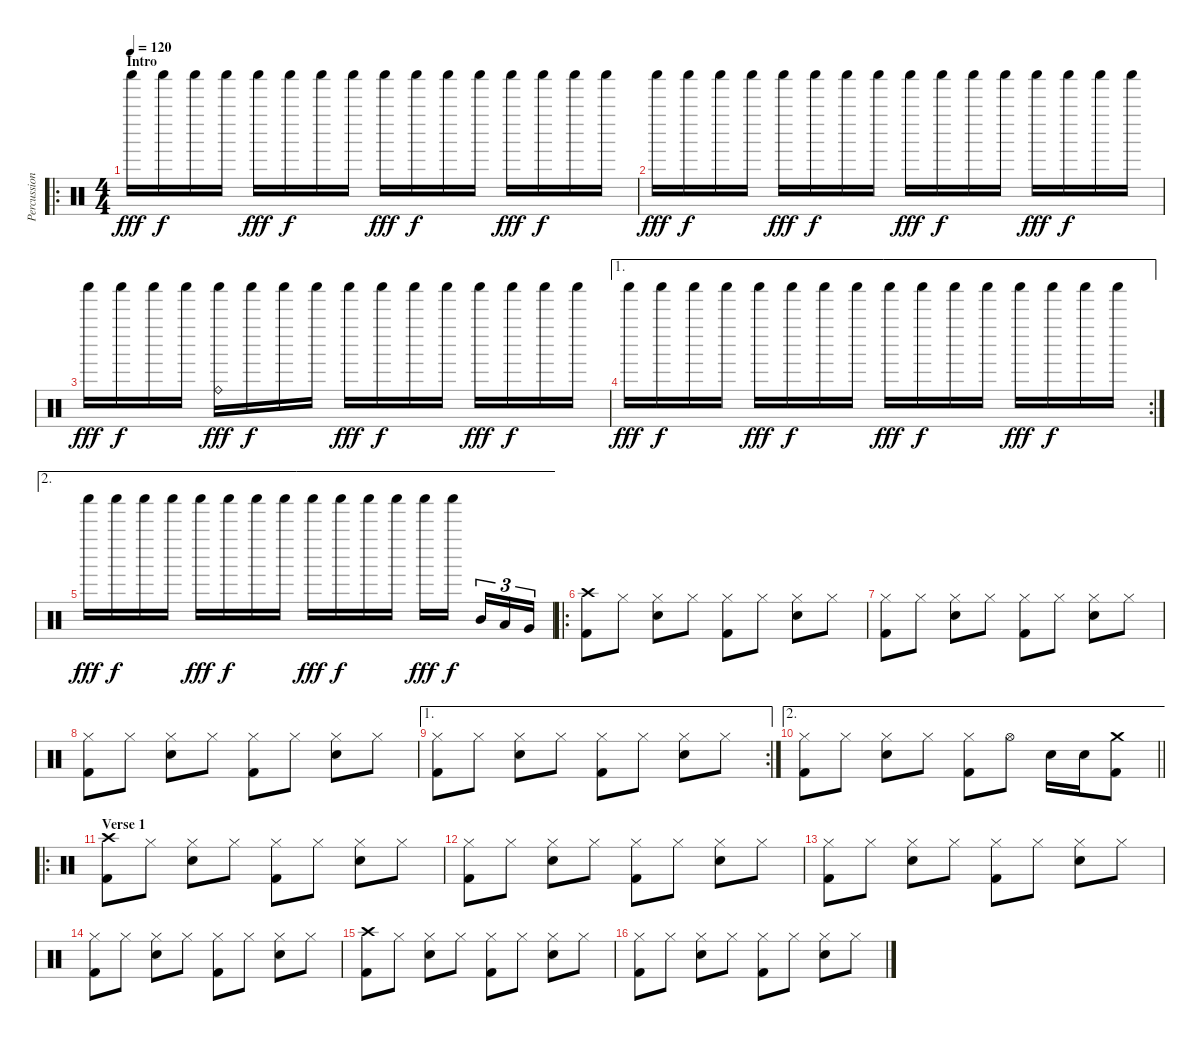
\track ("Percussion" "Percussion") {instrument percussion}
\staff {score}
\articulation defaults
\ro
\ts (4 4)
\section ("" "Intro")
\tempo 120
\clef neutral
\ks c "Shaker (hit)".16{dy fff} "Shaker (hit)".16{dy f} "Shaker (hit)".16 "Shaker (hit)".16 "Shaker (hit)".16{dy fff} "Shaker (hit)".16{dy f} "Shaker (hit)".16 "Shaker (hit)".16 "Shaker (hit)".16{dy fff} "Shaker (hit)".16{dy f} "Shaker (hit)".16 "Shaker (hit)".16 "Shaker (hit)".16{dy fff} "Shaker (hit)".16{dy f} "Shaker (hit)".16 "Shaker (hit)".16
|
"Shaker (hit)".16{dy fff} "Shaker (hit)".16{dy f} "Shaker (hit)".16 "Shaker (hit)".16 "Shaker (hit)".16{dy fff} "Shaker (hit)".16{dy f} "Shaker (hit)".16 "Shaker (hit)".16 "Shaker (hit)".16{dy fff} "Shaker (hit)".16{dy f} "Shaker (hit)".16 "Shaker (hit)".16 "Shaker (hit)".16{dy fff} "Shaker (hit)".16{dy f} "Shaker (hit)".16 "Shaker (hit)".16 |
"Shaker (hit)".16{dy fff} "Shaker (hit)".16{dy f} "Shaker (hit)".16 "Shaker (hit)".16 ("Shaker (hit)" "Ride (bell)").16{dy fff} "Shaker (hit)".16{dy f} "Shaker (hit)".16 "Shaker (hit)".16 "Shaker (hit)".16{dy fff} "Shaker (hit)".16{dy f} "Shaker (hit)".16 "Shaker (hit)".16 "Shaker (hit)".16{dy fff} "Shaker (hit)".16{dy f} "Shaker (hit)".16 "Shaker (hit)".16 |
\ae 1
\rc 2 "Shaker (hit)".16{dy fff} "Shaker (hit)".16{dy f} "Shaker (hit)".16 "Shaker (hit)".16 "Shaker (hit)".16{dy fff} "Shaker (hit)".16{dy f} "Shaker (hit)".16 "Shaker (hit)".16 "Shaker (hit)".16{dy fff} "Shaker (hit)".16{dy f} "Shaker (hit)".16 "Shaker (hit)".16 "Shaker (hit)".16{dy fff} "Shaker (hit)".16{dy f} "Shaker (hit)".16 "Shaker (hit)".16
|
\ae 2 "Shaker (hit)".16{dy fff} "Shaker (hit)".16{dy f} "Shaker (hit)".16 "Shaker (hit)".16 "Shaker (hit)".16{dy fff} "Shaker (hit)".16{dy f} "Shaker (hit)".16 "Shaker (hit)".16 "Shaker (hit)".16{dy fff} "Shaker (hit)".16{dy f} "Shaker (hit)".16 "Shaker (hit)".16 "Shaker (hit)".16{dy fff} "Shaker (hit)".16{dy f} "Mid Tom (hit)".16{tu (3 2)} "Low Tom (hit)".16{tu (3 2)} "Very Low Tom (hit)".16{tu (3 2)}
|
\ro
("Crash high (hit)" "Kick (hit) 2").8 "Hi-Hat (closed)".8 ("Hi-Hat (closed)" "Snare (hit) 2").8 "Hi-Hat (closed)".8 ("Hi-Hat (closed)" "Kick (hit) 2").8 "Hi-Hat (closed)".8 ("Hi-Hat (closed)" "Snare (hit) 2").8 "Hi-Hat (closed)".8 |
("Hi-Hat (closed)" "Kick (hit) 2").8 "Hi-Hat (closed)".8 ("Hi-Hat (closed)" "Snare (hit) 2").8 "Hi-Hat (closed)".8 ("Hi-Hat (closed)" "Kick (hit) 2").8 "Hi-Hat (closed)".8 ("Hi-Hat (closed)" "Snare (hit) 2").8 "Hi-Hat (closed)".8 |
("Hi-Hat (closed)" "Kick (hit) 2").8 "Hi-Hat (closed)".8 ("Hi-Hat (closed)" "Snare (hit) 2").8 "Hi-Hat (closed)".8 ("Hi-Hat (closed)" "Kick (hit) 2").8 "Hi-Hat (closed)".8 ("Hi-Hat (closed)" "Snare (hit) 2").8 "Hi-Hat (closed)".8 |
\ae 1
\rc 2
("Hi-Hat (closed)" "Kick (hit) 2").8 "Hi-Hat (closed)".8 ("Hi-Hat (closed)" "Snare (hit) 2").8 "Hi-Hat (closed)".8 ("Hi-Hat (closed)" "Kick (hit) 2").8 "Hi-Hat (closed)".8 ("Hi-Hat (closed)" "Snare (hit) 2").8 "Hi-Hat (closed)".8 |
\ae 2
\barLineRight lightlight
("Hi-Hat (closed)" "Kick (hit) 2").8 "Hi-Hat (closed)".8 ("Hi-Hat (closed)" "Snare (hit) 2").8 "Hi-Hat (closed)".8 ("Hi-Hat (closed)" "Kick (hit) 2").8 "Hi-Hat (open)".8 "Snare (hit) 2".16 "Snare (hit) 2".16 ("Crash medium (hit)" "Kick (hit) 2").8 |
\ro
\section ("" "Verse 1")
("Crash high (hit)" "Kick (hit) 2").8 "Hi-Hat (closed)".8 ("Hi-Hat (closed)" "Snare (hit) 2").8 "Hi-Hat (closed)".8 ("Hi-Hat (closed)" "Kick (hit) 2").8 "Hi-Hat (closed)".8 ("Hi-Hat (closed)" "Snare (hit) 2").8 "Hi-Hat (closed)".8 |
("Hi-Hat (closed)" "Kick (hit) 2").8 "Hi-Hat (closed)".8 ("Hi-Hat (closed)" "Snare (hit) 2").8 "Hi-Hat (closed)".8 ("Hi-Hat (closed)" "Kick (hit) 2").8 "Hi-Hat (closed)".8 ("Hi-Hat (closed)" "Snare (hit) 2").8 "Hi-Hat (closed)".8 |
("Hi-Hat (closed)" "Kick (hit) 2").8 "Hi-Hat (closed)".8 ("Hi-Hat (closed)" "Snare (hit) 2").8 "Hi-Hat (closed)".8 ("Hi-Hat (closed)" "Kick (hit) 2").8 "Hi-Hat (closed)".8 ("Hi-Hat (closed)" "Snare (hit) 2").8 "Hi-Hat (closed)".8 |
("Hi-Hat (closed)" "Kick (hit) 2").8 "Hi-Hat (closed)".8 ("Hi-Hat (closed)" "Snare (hit) 2").8 "Hi-Hat (closed)".8 ("Hi-Hat (closed)" "Kick (hit) 2").8 "Hi-Hat (closed)".8 ("Hi-Hat (closed)" "Snare (hit) 2").8 "Hi-Hat (closed)".8 |
("Crash high (hit)" "Kick (hit) 2").8 "Hi-Hat (closed)".8 ("Hi-Hat (closed)" "Snare (hit) 2").8 "Hi-Hat (closed)".8 ("Hi-Hat (closed)" "Kick (hit) 2").8 "Hi-Hat (closed)".8 ("Hi-Hat (closed)" "Snare (hit) 2").8 "Hi-Hat (closed)".8 |
("Hi-Hat (closed)" "Kick (hit) 2").8 "Hi-Hat (closed)".8 ("Hi-Hat (closed)" "Snare (hit) 2").8 "Hi-Hat (closed)".8 ("Hi-Hat (closed)" "Kick (hit) 2").8 "Hi-Hat (closed)".8 ("Hi-Hat (closed)" "Snare (hit) 2").8 "Hi-Hat (closed)".8
